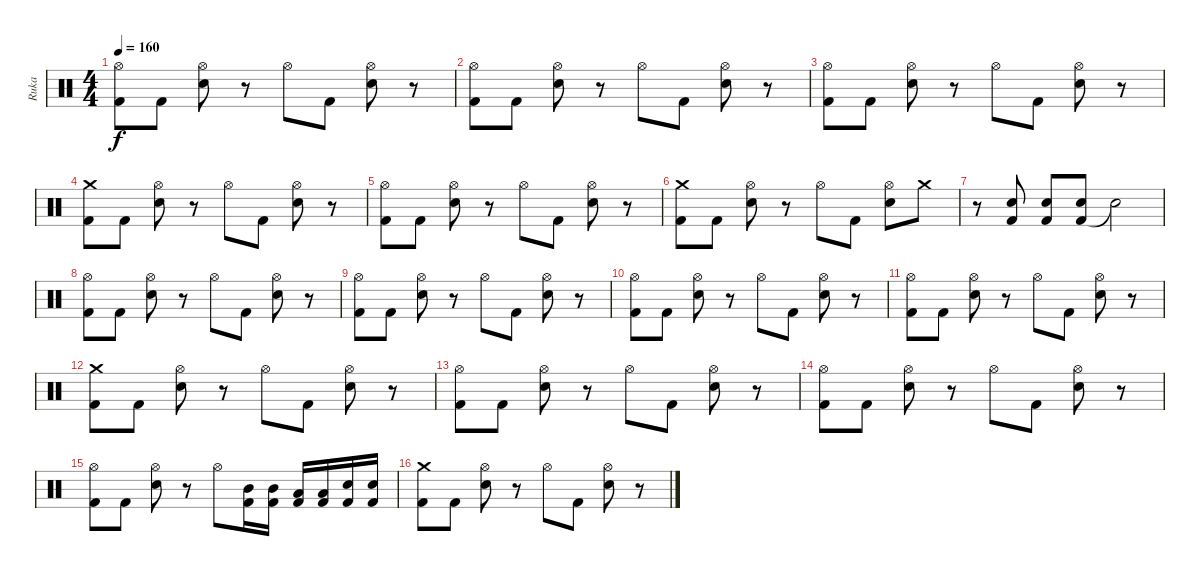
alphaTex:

\track ("Ruka" "Ruka") {instrument percussion}
\staff {score}
\articulation defaults
\ts (4 4)
\tempo 160
\clef neutral
\ks c
("Kick (hit) 2" "Hi-Hat (open)").8{dy f} "Kick (hit) 2".8 ("Electric Snare (hit)" "Hi-Hat (open)").8 r.8 "Hi-Hat (open)".8 "Kick (hit) 2".8 ("Electric Snare (hit)" "Hi-Hat (open)").8 r.8 |
("Kick (hit) 2" "Hi-Hat (open)").8 "Kick (hit) 2".8 ("Electric Snare (hit)" "Hi-Hat (open)").8 r.8 "Hi-Hat (open)".8 "Kick (hit) 2".8 ("Electric Snare (hit)" "Hi-Hat (open)").8 r.8 |
("Kick (hit) 2" "Hi-Hat (open)").8 "Kick (hit) 2".8 ("Electric Snare (hit)" "Hi-Hat (open)").8 r.8 "Hi-Hat (open)".8 "Kick (hit) 2".8 ("Electric Snare (hit)" "Hi-Hat (open)").8 r.8 |
("Kick (hit) 2" "Crash medium (hit)").8 "Kick (hit) 2".8 ("Electric Snare (hit)" "Hi-Hat (open)").8 r.8 "Hi-Hat (open)".8 "Kick (hit) 2".8 ("Electric Snare (hit)" "Hi-Hat (open)").8 r.8 |
("Kick (hit) 2" "Hi-Hat (open)").8 "Kick (hit) 2".8 ("Electric Snare (hit)" "Hi-Hat (open)").8 r.8 "Hi-Hat (open)".8 "Kick (hit) 2".8 ("Electric Snare (hit)" "Hi-Hat (open)").8 r.8 |
("Kick (hit) 2" "Crash medium (hit)").8 "Kick (hit) 2".8 ("Electric Snare (hit)" "Hi-Hat (open)").8 r.8 "Hi-Hat (open)".8 "Kick (hit) 2".8 ("Electric Snare (hit)" "Hi-Hat (open)").8 "Crash medium (hit)".8 |
r.8 ("Kick (hit) 2" "Electric Snare (hit)").8 ("Kick (hit) 2" "Electric Snare (hit)").8 ("Kick (hit) 2" "Electric Snare (hit)").8 "Snare (hit)"{t}.2 |
("Kick (hit) 2" "Hi-Hat (open)").8 "Kick (hit) 2".8 ("Electric Snare (hit)" "Hi-Hat (open)").8 r.8 "Hi-Hat (open)".8 "Kick (hit) 2".8 ("Electric Snare (hit)" "Hi-Hat (open)").8 r.8 |
("Kick (hit) 2" "Hi-Hat (open)").8 "Kick (hit) 2".8 ("Electric Snare (hit)" "Hi-Hat (open)").8 r.8 "Hi-Hat (open)".8 "Kick (hit) 2".8 ("Electric Snare (hit)" "Hi-Hat (open)").8 r.8 |
("Kick (hit) 2" "Hi-Hat (open)").8 "Kick (hit) 2".8 ("Electric Snare (hit)" "Hi-Hat (open)").8 r.8 "Hi-Hat (open)".8 "Kick (hit) 2".8 ("Electric Snare (hit)" "Hi-Hat (open)").8 r.8 |
("Kick (hit) 2" "Hi-Hat (open)").8 "Kick (hit) 2".8 ("Electric Snare (hit)" "Hi-Hat (open)").8 r.8 "Hi-Hat (open)".8 "Kick (hit) 2".8 ("Electric Snare (hit)" "Hi-Hat (open)").8 r.8 |
("Kick (hit) 2" "Crash medium (hit)").8 "Kick (hit) 2".8 ("Electric Snare (hit)" "Hi-Hat (open)").8 r.8 "Hi-Hat (open)".8 "Kick (hit) 2".8 ("Electric Snare (hit)" "Hi-Hat (open)").8 r.8 |
("Kick (hit) 2" "Hi-Hat (open)").8 "Kick (hit) 2".8 ("Electric Snare (hit)" "Hi-Hat (open)").8 r.8 "Hi-Hat (open)".8 "Kick (hit) 2".8 ("Electric Snare (hit)" "Hi-Hat (open)").8 r.8 |
("Kick (hit) 2" "Hi-Hat (open)").8 "Kick (hit) 2".8 ("Electric Snare (hit)" "Hi-Hat (open)").8 r.8 "Hi-Hat (open)".8 "Kick (hit) 2".8 ("Electric Snare (hit)" "Hi-Hat (open)").8 r.8 |
("Kick (hit) 2" "Hi-Hat (open)").8 "Kick (hit) 2".8 ("Electric Snare (hit)" "Hi-Hat (open)").8 r.8 "Hi-Hat (open)".8 ("Kick (hit) 2" "Mid Tom (hit)").16 ("Kick (hit) 2" "Mid Tom (hit)").16 ("Kick (hit) 2" "Low Tom (hit)").16 ("Kick (hit) 2" "Low Tom (hit)").16 ("Kick (hit) 2" "Electric Snare (hit)").16 ("Kick (hit) 2" "Electric Snare (hit)").16 |
("Kick (hit) 2" "Crash medium (hit)").8 "Kick (hit) 2".8 ("Electric Snare (hit)" "Hi-Hat (open)").8 r.8 "Hi-Hat (open)".8 "Kick (hit) 2".8 ("Electric Snare (hit)" "Hi-Hat (open)").8 r.8
